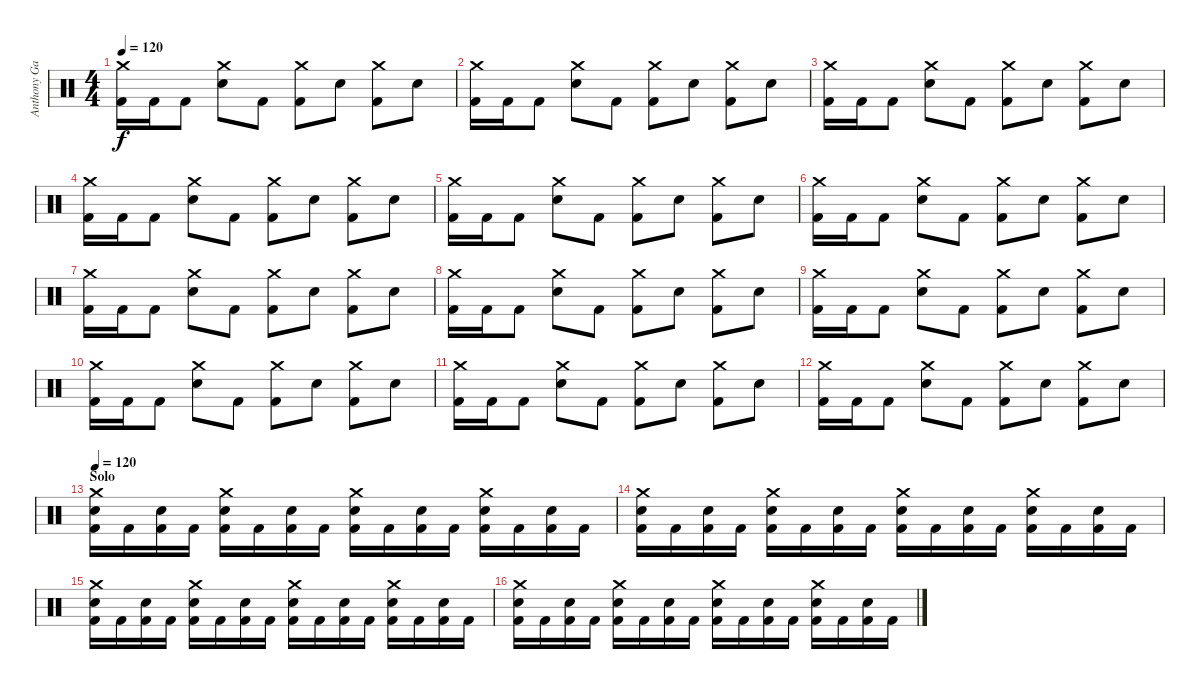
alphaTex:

\track ("Anthony Garbarino" "Anthony Ga") {instrument percussion}
\staff {score}
\articulation defaults
\ts (4 4)
\tempo 120
\clef neutral
\ks c
("Crash medium (hit)" "Kick (hit) 2").16{dy f} "Kick (hit) 2".16 "Kick (hit) 2".8 ("Crash medium (hit)" "Snare (hit) 2").8 "Kick (hit) 2".8 ("Crash medium (hit)" "Kick (hit) 2").8 "Snare (hit) 2".8 ("Crash medium (hit)" "Kick (hit) 2").8 "Snare (hit) 2".8 |
("Crash medium (hit)" "Kick (hit) 2").16 "Kick (hit) 2".16 "Kick (hit) 2".8 ("Crash medium (hit)" "Snare (hit) 2").8 "Kick (hit) 2".8 ("Crash medium (hit)" "Kick (hit) 2").8 "Snare (hit) 2".8 ("Crash medium (hit)" "Kick (hit) 2").8 "Snare (hit) 2".8 |
("Crash medium (hit)" "Kick (hit) 2").16 "Kick (hit) 2".16 "Kick (hit) 2".8 ("Crash medium (hit)" "Snare (hit) 2").8 "Kick (hit) 2".8 ("Crash medium (hit)" "Kick (hit) 2").8 "Snare (hit) 2".8 ("Crash medium (hit)" "Kick (hit) 2").8 "Snare (hit) 2".8 |
("Crash medium (hit)" "Kick (hit) 2").16 "Kick (hit) 2".16 "Kick (hit) 2".8 ("Crash medium (hit)" "Snare (hit) 2").8 "Kick (hit) 2".8 ("Crash medium (hit)" "Kick (hit) 2").8 "Snare (hit) 2".8 ("Crash medium (hit)" "Kick (hit) 2").8 "Snare (hit) 2".8 |
("Crash medium (hit)" "Kick (hit) 2").16 "Kick (hit) 2".16 "Kick (hit) 2".8 ("Crash medium (hit)" "Snare (hit) 2").8 "Kick (hit) 2".8 ("Crash medium (hit)" "Kick (hit) 2").8 "Snare (hit) 2".8 ("Crash medium (hit)" "Kick (hit) 2").8 "Snare (hit) 2".8 |
("Crash medium (hit)" "Kick (hit) 2").16 "Kick (hit) 2".16 "Kick (hit) 2".8 ("Crash medium (hit)" "Snare (hit) 2").8 "Kick (hit) 2".8 ("Crash medium (hit)" "Kick (hit) 2").8 "Snare (hit) 2".8 ("Crash medium (hit)" "Kick (hit) 2").8 "Snare (hit) 2".8 |
("Crash medium (hit)" "Kick (hit) 2").16 "Kick (hit) 2".16 "Kick (hit) 2".8 ("Crash medium (hit)" "Snare (hit) 2").8 "Kick (hit) 2".8 ("Crash medium (hit)" "Kick (hit) 2").8 "Snare (hit) 2".8 ("Crash medium (hit)" "Kick (hit) 2").8 "Snare (hit) 2".8 |
("Crash medium (hit)" "Kick (hit) 2").16 "Kick (hit) 2".16 "Kick (hit) 2".8 ("Crash medium (hit)" "Snare (hit) 2").8 "Kick (hit) 2".8 ("Crash medium (hit)" "Kick (hit) 2").8 "Snare (hit) 2".8 ("Crash medium (hit)" "Kick (hit) 2").8 "Snare (hit) 2".8 |
("Crash medium (hit)" "Kick (hit) 2").16 "Kick (hit) 2".16 "Kick (hit) 2".8 ("Crash medium (hit)" "Snare (hit) 2").8 "Kick (hit) 2".8 ("Crash medium (hit)" "Kick (hit) 2").8 "Snare (hit) 2".8 ("Crash medium (hit)" "Kick (hit) 2").8 "Snare (hit) 2".8 |
("Crash medium (hit)" "Kick (hit) 2").16 "Kick (hit) 2".16 "Kick (hit) 2".8 ("Crash medium (hit)" "Snare (hit) 2").8 "Kick (hit) 2".8 ("Crash medium (hit)" "Kick (hit) 2").8 "Snare (hit) 2".8 ("Crash medium (hit)" "Kick (hit) 2").8 "Snare (hit) 2".8 |
("Crash medium (hit)" "Kick (hit) 2").16 "Kick (hit) 2".16 "Kick (hit) 2".8 ("Crash medium (hit)" "Snare (hit) 2").8 "Kick (hit) 2".8 ("Crash medium (hit)" "Kick (hit) 2").8 "Snare (hit) 2".8 ("Crash medium (hit)" "Kick (hit) 2").8 "Snare (hit) 2".8 |
("Crash medium (hit)" "Kick (hit) 2").16 "Kick (hit) 2".16 "Kick (hit) 2".8 ("Crash medium (hit)" "Snare (hit) 2").8 "Kick (hit) 2".8 ("Crash medium (hit)" "Kick (hit) 2").8 "Snare (hit) 2".8 ("Crash medium (hit)" "Kick (hit) 2").8 "Snare (hit) 2".8 |
\section ("" "Solo")
\tempo 135
\tempo 120
("Crash medium (hit)" "Snare (hit) 2" "Kick (hit) 2").16{volume 16} "Kick (hit) 2".16 ("Snare (hit) 2" "Kick (hit) 2").16 "Kick (hit) 2".16 ("Crash medium (hit)" "Snare (hit) 2" "Kick (hit) 2").16 "Kick (hit) 2".16 ("Snare (hit) 2" "Kick (hit) 2").16 "Kick (hit) 2".16 ("Crash medium (hit)" "Snare (hit) 2" "Kick (hit) 2").16 "Kick (hit) 2".16 ("Snare (hit) 2" "Kick (hit) 2").16 "Kick (hit) 2".16 ("Crash medium (hit)" "Snare (hit) 2" "Kick (hit) 2").16 "Kick (hit) 2".16 ("Snare (hit) 2" "Kick (hit) 2").16 "Kick (hit) 2".16 |
("Crash medium (hit)" "Snare (hit) 2" "Kick (hit) 2").16 "Kick (hit) 2".16 ("Snare (hit) 2" "Kick (hit) 2").16 "Kick (hit) 2".16 ("Crash medium (hit)" "Snare (hit) 2" "Kick (hit) 2").16 "Kick (hit) 2".16 ("Snare (hit) 2" "Kick (hit) 2").16 "Kick (hit) 2".16 ("Crash medium (hit)" "Snare (hit) 2" "Kick (hit) 2").16 "Kick (hit) 2".16 ("Snare (hit) 2" "Kick (hit) 2").16 "Kick (hit) 2".16 ("Crash medium (hit)" "Snare (hit) 2" "Kick (hit) 2").16 "Kick (hit) 2".16 ("Snare (hit) 2" "Kick (hit) 2").16 "Kick (hit) 2".16 |
("Crash medium (hit)" "Snare (hit) 2" "Kick (hit) 2").16 "Kick (hit) 2".16 ("Snare (hit) 2" "Kick (hit) 2").16 "Kick (hit) 2".16 ("Crash medium (hit)" "Snare (hit) 2" "Kick (hit) 2").16 "Kick (hit) 2".16 ("Snare (hit) 2" "Kick (hit) 2").16 "Kick (hit) 2".16 ("Crash medium (hit)" "Snare (hit) 2" "Kick (hit) 2").16 "Kick (hit) 2".16 ("Snare (hit) 2" "Kick (hit) 2").16 "Kick (hit) 2".16 ("Crash medium (hit)" "Snare (hit) 2" "Kick (hit) 2").16 "Kick (hit) 2".16 ("Snare (hit) 2" "Kick (hit) 2").16 "Kick (hit) 2".16 |
("Crash medium (hit)" "Snare (hit) 2" "Kick (hit) 2").16 "Kick (hit) 2".16 ("Snare (hit) 2" "Kick (hit) 2").16 "Kick (hit) 2".16 ("Crash medium (hit)" "Snare (hit) 2" "Kick (hit) 2").16 "Kick (hit) 2".16 ("Snare (hit) 2" "Kick (hit) 2").16 "Kick (hit) 2".16 ("Crash medium (hit)" "Snare (hit) 2" "Kick (hit) 2").16 "Kick (hit) 2".16 ("Snare (hit) 2" "Kick (hit) 2").16 "Kick (hit) 2".16 ("Crash medium (hit)" "Snare (hit) 2" "Kick (hit) 2").16 "Kick (hit) 2".16 ("Snare (hit) 2" "Kick (hit) 2").16 "Kick (hit) 2".16
